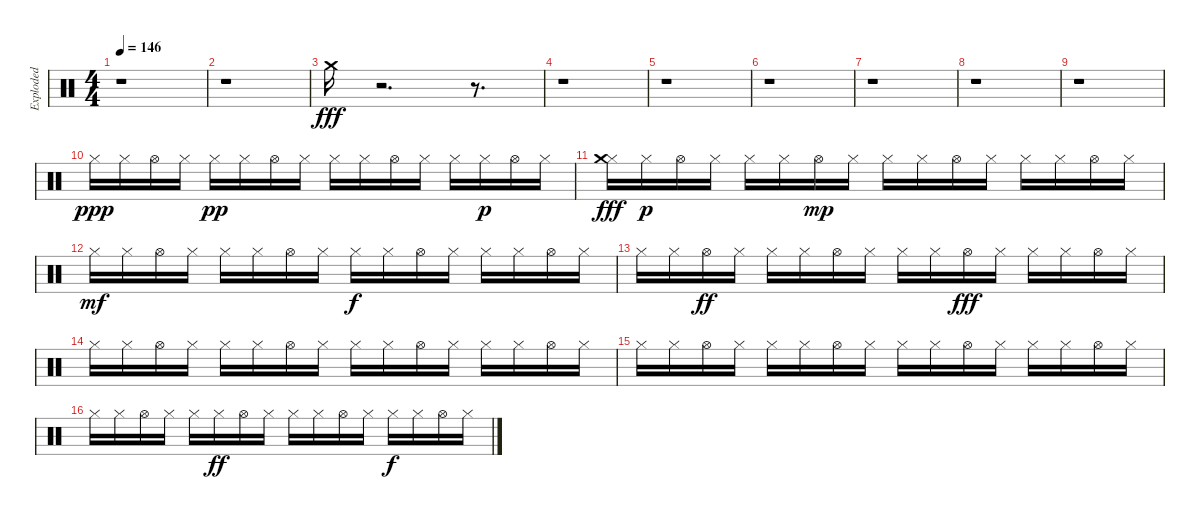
\track ("Exploded" "Exploded") {instrument percussion}
\staff {score}
\articulation defaults
\ts (4 4)
\tempo 146
\clef neutral
\ks c
r.1{dy fff} |
r.1 |
"Crash medium (hit)".16 r.2{d} r.8{d} |
r.1 |
r.1 |
r.1 |
r.1 |
r.1 |
r.1 |
"Hi-Hat (closed)".16{dy ppp} "Hi-Hat (closed)".16 "Hi-Hat (open)".16 "Hi-Hat (closed)".16 "Hi-Hat (closed)".16{dy pp} "Hi-Hat (closed)".16 "Hi-Hat (open)".16 "Hi-Hat (closed)".16 "Hi-Hat (closed)".16 "Hi-Hat (closed)".16 "Hi-Hat (open)".16 "Hi-Hat (closed)".16 "Hi-Hat (closed)".16 "Hi-Hat (closed)".16{dy p} "Hi-Hat (open)".16 "Hi-Hat (closed)".16 |
("Hi-Hat (closed)" "Crash medium (hit)").16{dy fff} "Hi-Hat (closed)".16{dy p} "Hi-Hat (open)".16 "Hi-Hat (closed)".16 "Hi-Hat (closed)".16 "Hi-Hat (closed)".16 "Hi-Hat (open)".16{dy mp} "Hi-Hat (closed)".16 "Hi-Hat (closed)".16 "Hi-Hat (closed)".16 "Hi-Hat (open)".16 "Hi-Hat (closed)".16 "Hi-Hat (closed)".16 "Hi-Hat (closed)".16 "Hi-Hat (open)".16 "Hi-Hat (closed)".16 |
"Hi-Hat (closed)".16{dy mf} "Hi-Hat (closed)".16 "Hi-Hat (open)".16 "Hi-Hat (closed)".16 "Hi-Hat (closed)".16 "Hi-Hat (closed)".16 "Hi-Hat (open)".16 "Hi-Hat (closed)".16 "Hi-Hat (closed)".16{dy f} "Hi-Hat (closed)".16 "Hi-Hat (open)".16 "Hi-Hat (closed)".16 "Hi-Hat (closed)".16 "Hi-Hat (closed)".16 "Hi-Hat (open)".16 "Hi-Hat (closed)".16 |
"Hi-Hat (closed)".16 "Hi-Hat (closed)".16 "Hi-Hat (open)".16{dy ff} "Hi-Hat (closed)".16 "Hi-Hat (closed)".16 "Hi-Hat (closed)".16 "Hi-Hat (open)".16 "Hi-Hat (closed)".16 "Hi-Hat (closed)".16 "Hi-Hat (closed)".16 "Hi-Hat (open)".16{dy fff} "Hi-Hat (closed)".16 "Hi-Hat (closed)".16 "Hi-Hat (closed)".16 "Hi-Hat (open)".16 "Hi-Hat (closed)".16 |
"Hi-Hat (closed)".16 "Hi-Hat (closed)".16 "Hi-Hat (open)".16 "Hi-Hat (closed)".16 "Hi-Hat (closed)".16 "Hi-Hat (closed)".16 "Hi-Hat (open)".16 "Hi-Hat (closed)".16 "Hi-Hat (closed)".16 "Hi-Hat (closed)".16 "Hi-Hat (open)".16 "Hi-Hat (closed)".16 "Hi-Hat (closed)".16 "Hi-Hat (closed)".16 "Hi-Hat (open)".16 "Hi-Hat (closed)".16 |
"Hi-Hat (closed)".16 "Hi-Hat (closed)".16 "Hi-Hat (open)".16 "Hi-Hat (closed)".16 "Hi-Hat (closed)".16 "Hi-Hat (closed)".16 "Hi-Hat (open)".16 "Hi-Hat (closed)".16 "Hi-Hat (closed)".16 "Hi-Hat (closed)".16 "Hi-Hat (open)".16 "Hi-Hat (closed)".16 "Hi-Hat (closed)".16 "Hi-Hat (closed)".16 "Hi-Hat (open)".16 "Hi-Hat (closed)".16 |
"Hi-Hat (closed)".16 "Hi-Hat (closed)".16 "Hi-Hat (open)".16 "Hi-Hat (closed)".16 "Hi-Hat (closed)".16 "Hi-Hat (closed)".16{dy ff} "Hi-Hat (open)".16 "Hi-Hat (closed)".16 "Hi-Hat (closed)".16 "Hi-Hat (closed)".16 "Hi-Hat (open)".16 "Hi-Hat (closed)".16 "Hi-Hat (closed)".16{dy f} "Hi-Hat (closed)".16 "Hi-Hat (open)".16 "Hi-Hat (closed)".16
